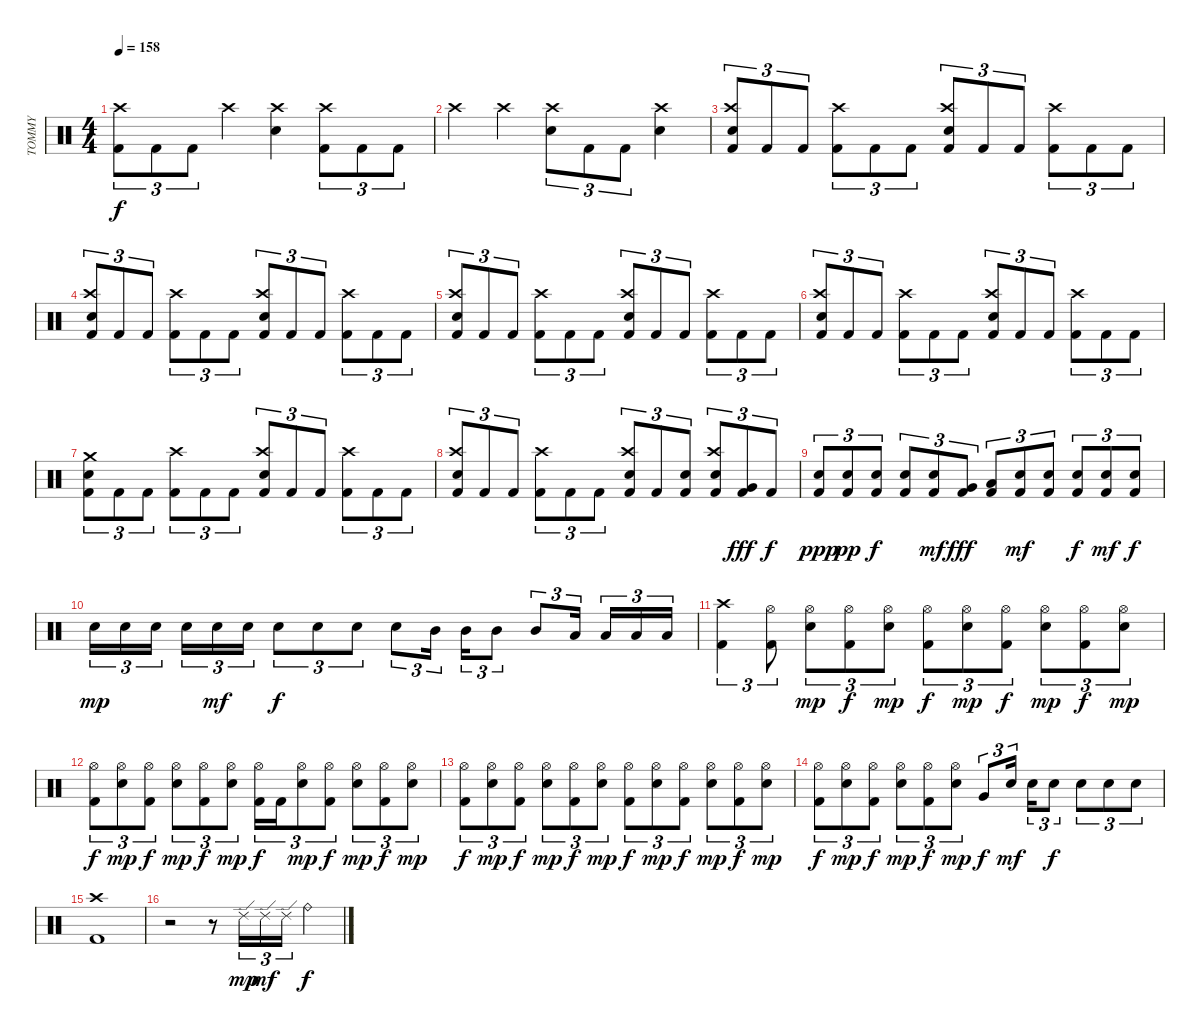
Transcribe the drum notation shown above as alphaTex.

\track ("TOMMY" "TOMMY") {instrument percussion}
\staff {score}
\articulation defaults
\ts (4 4)
\tempo 158
\clef neutral
\ks c
("Kick (hit) 2" "Crash high (hit)").8{tu (3 2) dy f} "Kick (hit) 2".8{tu (3 2)} "Kick (hit) 2".8{tu (3 2)} "Crash high (hit)".4 ("Snare (hit) 2" "Crash high (hit)").4 ("Kick (hit) 2" "Crash high (hit)").8{tu (3 2)} "Kick (hit) 2".8{tu (3 2)} "Kick (hit) 2".8{tu (3 2)} |
"Crash high (hit)".4 "Crash high (hit)".4 ("Snare (hit) 2" "Crash high (hit)").8{tu (3 2)} "Kick (hit) 2".8{tu (3 2)} "Kick (hit) 2".8{tu (3 2)} ("Snare (hit) 2" "Crash high (hit)").4 |
("Snare (hit) 2" "Kick (hit) 2" "Crash high (hit)").8{tu (3 2)} "Kick (hit) 2".8{tu (3 2)} "Kick (hit) 2".8{tu (3 2)} ("Kick (hit) 2" "Crash high (hit)").8{tu (3 2)} "Kick (hit) 2".8{tu (3 2)} "Kick (hit) 2".8{tu (3 2)} ("Snare (hit) 2" "Kick (hit) 2" "Crash high (hit)").8{tu (3 2)} "Kick (hit) 2".8{tu (3 2)} "Kick (hit) 2".8{tu (3 2)} ("Kick (hit) 2" "Crash high (hit)").8{tu (3 2)} "Kick (hit) 2".8{tu (3 2)} "Kick (hit) 2".8{tu (3 2)} |
("Snare (hit) 2" "Kick (hit) 2" "Crash high (hit)").8{tu (3 2)} "Kick (hit) 2".8{tu (3 2)} "Kick (hit) 2".8{tu (3 2)} ("Kick (hit) 2" "Crash high (hit)").8{tu (3 2)} "Kick (hit) 2".8{tu (3 2)} "Kick (hit) 2".8{tu (3 2)} ("Snare (hit) 2" "Kick (hit) 2" "Crash high (hit)").8{tu (3 2)} "Kick (hit) 2".8{tu (3 2)} "Kick (hit) 2".8{tu (3 2)} ("Kick (hit) 2" "Crash high (hit)").8{tu (3 2)} "Kick (hit) 2".8{tu (3 2)} "Kick (hit) 2".8{tu (3 2)} |
("Snare (hit) 2" "Kick (hit) 2" "Crash high (hit)").8{tu (3 2)} "Kick (hit) 2".8{tu (3 2)} "Kick (hit) 2".8{tu (3 2)} ("Kick (hit) 2" "Crash high (hit)").8{tu (3 2)} "Kick (hit) 2".8{tu (3 2)} "Kick (hit) 2".8{tu (3 2)} ("Snare (hit) 2" "Kick (hit) 2" "Crash high (hit)").8{tu (3 2)} "Kick (hit) 2".8{tu (3 2)} "Kick (hit) 2".8{tu (3 2)} ("Kick (hit) 2" "Crash high (hit)").8{tu (3 2)} "Kick (hit) 2".8{tu (3 2)} "Kick (hit) 2".8{tu (3 2)} |
("Snare (hit) 2" "Kick (hit) 2" "Crash high (hit)").8{tu (3 2)} "Kick (hit) 2".8{tu (3 2)} "Kick (hit) 2".8{tu (3 2)} ("Kick (hit) 2" "Crash high (hit)").8{tu (3 2)} "Kick (hit) 2".8{tu (3 2)} "Kick (hit) 2".8{tu (3 2)} ("Snare (hit) 2" "Kick (hit) 2" "Crash high (hit)").8{tu (3 2)} "Kick (hit) 2".8{tu (3 2)} "Kick (hit) 2".8{tu (3 2)} ("Kick (hit) 2" "Crash high (hit)").8{tu (3 2)} "Kick (hit) 2".8{tu (3 2)} "Kick (hit) 2".8{tu (3 2)} |
("Snare (hit) 2" "Kick (hit) 2" "Crash medium (hit)").8{tu (3 2)} "Kick (hit) 2".8{tu (3 2)} "Kick (hit) 2".8{tu (3 2)} ("Kick (hit) 2" "Crash high (hit)").8{tu (3 2)} "Kick (hit) 2".8{tu (3 2)} "Kick (hit) 2".8{tu (3 2)} ("Snare (hit) 2" "Kick (hit) 2" "Crash high (hit)").8{tu (3 2)} "Kick (hit) 2".8{tu (3 2)} "Kick (hit) 2".8{tu (3 2)} ("Kick (hit) 2" "Crash high (hit)").8{tu (3 2)} "Kick (hit) 2".8{tu (3 2)} "Kick (hit) 2".8{tu (3 2)} |
("Snare (hit) 2" "Kick (hit) 2" "Crash high (hit)").8{tu (3 2)} "Kick (hit) 2".8{tu (3 2)} "Kick (hit) 2".8{tu (3 2)} ("Kick (hit) 2" "Crash high (hit)").8{tu (3 2)} "Kick (hit) 2".8{tu (3 2)} "Kick (hit) 2".8{tu (3 2)} ("Snare (hit) 2" "Kick (hit) 2" "Crash high (hit)").8{tu (3 2)} "Kick (hit) 2".8{tu (3 2)} ("Snare (hit) 2" "Kick (hit) 2").8{tu (3 2)} ("Snare (hit) 2" "Kick (hit) 2" "Crash high (hit)").8{tu (3 2)} ("Kick (hit) 2" "Very Low Tom (hit)").8{tu (3 2) dy fff} "Kick (hit) 2".8{tu (3 2) dy f} |
("Snare (hit) 2" "Kick (hit) 2").8{tu (3 2) dy ppp} ("Snare (hit) 2" "Kick (hit) 2").8{tu (3 2) dy pp} ("Snare (hit) 2" "Kick (hit) 2").8{tu (3 2) dy f} ("Snare (hit) 2" "Kick (hit) 2").8{tu (3 2)} ("Snare (hit) 2" "Kick (hit) 2").8{tu (3 2) dy mf} ("Kick (hit) 2" "Very Low Tom (hit)").8{tu (3 2) dy fff} ("Kick (hit) 2" "Low Floor Tom (hit)").8{tu (3 2)} ("Snare (hit) 2" "Kick (hit) 2").8{tu (3 2) dy mf} ("Snare (hit) 2" "Kick (hit) 2").8{tu (3 2)} ("Snare (hit) 2" "Kick (hit) 2").8{tu (3 2) dy f} ("Snare (hit) 2" "Kick (hit) 2").8{tu (3 2) dy mf} ("Snare (hit) 2" "Kick (hit) 2").8{tu (3 2) dy f} |
"Snare (hit) 2".16{tu (3 2) dy mp} "Snare (hit) 2".16{tu (3 2)} "Snare (hit) 2".16{tu (3 2)} "Snare (hit) 2".16{tu (3 2)} "Snare (hit) 2".16{tu (3 2) dy mf} "Snare (hit) 2".16{tu (3 2)} "Snare (hit) 2".8{tu (3 2) dy f} "Snare (hit) 2".8{tu (3 2)} "Snare (hit) 2".8{tu (3 2)} "Snare (hit) 2".8{tu (3 2)} "Mid Tom (hit)".16{tu (3 2)} "Mid Tom (hit)".16{tu (3 2)} "Mid Tom (hit)".8{tu (3 2)} "Mid Tom (hit)".8{tu (3 2)} "Low Floor Tom (hit)".16{tu (3 2)} "Low Floor Tom (hit)".16{tu (3 2)} "Low Floor Tom (hit)".16{tu (3 2)} "Low Floor Tom (hit)".16{tu (3 2)} |
("Kick (hit) 2" "Crash high (hit)").4{tu (3 2)} ("Kick (hit) 2" "Hi-Hat (open)").8{tu (3 2)} ("Snare (hit) 2" "Hi-Hat (open)").8{tu (3 2) dy mp} ("Kick (hit) 2" "Hi-Hat (open)").8{tu (3 2) dy f} ("Snare (hit) 2" "Hi-Hat (open)").8{tu (3 2) dy mp} ("Kick (hit) 2" "Hi-Hat (open)").8{tu (3 2) dy f} ("Snare (hit) 2" "Hi-Hat (open)").8{tu (3 2) dy mp} ("Kick (hit) 2" "Hi-Hat (open)").8{tu (3 2) dy f} ("Snare (hit) 2" "Hi-Hat (open)").8{tu (3 2) dy mp} ("Kick (hit) 2" "Hi-Hat (open)").8{tu (3 2) dy f} ("Snare (hit) 2" "Hi-Hat (open)").8{tu (3 2) dy mp} |
("Kick (hit) 2" "Hi-Hat (open)").8{tu (3 2) dy f} ("Snare (hit) 2" "Hi-Hat (open)").8{tu (3 2) dy mp} ("Kick (hit) 2" "Hi-Hat (open)").8{tu (3 2) dy f} ("Snare (hit) 2" "Hi-Hat (open)").8{tu (3 2) dy mp} ("Kick (hit) 2" "Hi-Hat (open)").8{tu (3 2) dy f} ("Snare (hit) 2" "Hi-Hat (open)").8{tu (3 2) dy mp} ("Kick (hit) 2" "Hi-Hat (open)").16{tu (3 2) dy f} "Kick (hit) 2".16{tu (3 2)} ("Snare (hit) 2" "Hi-Hat (open)").8{tu (3 2) dy mp} ("Kick (hit) 2" "Hi-Hat (open)").8{tu (3 2) dy f} ("Snare (hit) 2" "Hi-Hat (open)").8{tu (3 2) dy mp} ("Kick (hit) 2" "Hi-Hat (open)").8{tu (3 2) dy f} ("Snare (hit) 2" "Hi-Hat (open)").8{tu (3 2) dy mp} |
("Kick (hit) 2" "Hi-Hat (open)").8{tu (3 2) dy f} ("Snare (hit) 2" "Hi-Hat (open)").8{tu (3 2) dy mp} ("Kick (hit) 2" "Hi-Hat (open)").8{tu (3 2) dy f} ("Snare (hit) 2" "Hi-Hat (open)").8{tu (3 2) dy mp} ("Kick (hit) 2" "Hi-Hat (open)").8{tu (3 2) dy f} ("Snare (hit) 2" "Hi-Hat (open)").8{tu (3 2) dy mp} ("Kick (hit) 2" "Hi-Hat (open)").8{tu (3 2) dy f} ("Snare (hit) 2" "Hi-Hat (open)").8{tu (3 2) dy mp} ("Kick (hit) 2" "Hi-Hat (open)").8{tu (3 2) dy f} ("Snare (hit) 2" "Hi-Hat (open)").8{tu (3 2) dy mp} ("Kick (hit) 2" "Hi-Hat (open)").8{tu (3 2) dy f} ("Snare (hit) 2" "Hi-Hat (open)").8{tu (3 2) dy mp} |
("Kick (hit) 2" "Hi-Hat (open)").8{tu (3 2) dy f} ("Snare (hit) 2" "Hi-Hat (open)").8{tu (3 2) dy mp} ("Kick (hit) 2" "Hi-Hat (open)").8{tu (3 2) dy f} ("Snare (hit) 2" "Hi-Hat (open)").8{tu (3 2) dy mp} ("Kick (hit) 2" "Hi-Hat (open)").8{tu (3 2) dy f} ("Snare (hit) 2" "Hi-Hat (open)").8{tu (3 2) dy mp} "Very Low Tom (hit)".8{tu (3 2) dy f} "Snare (hit) 2".16{tu (3 2) dy mf} "Snare (hit) 2".16{tu (3 2)} "Snare (hit) 2".8{tu (3 2) dy f} "Snare (hit) 2".8{tu (3 2)} "Snare (hit) 2".8{tu (3 2)} "Snare (hit) 2".8{tu (3 2)} |
("Kick (hit) 2" "Crash high (hit)").1 |
r.2 r.8 "Ride (edge) 2".16{tu (3 2) dy mp} "Ride (edge) 2".16{tu (3 2) dy mf} "Ride (edge) 2".16{tu (3 2)} "Ride (bell)".4{dy f}
